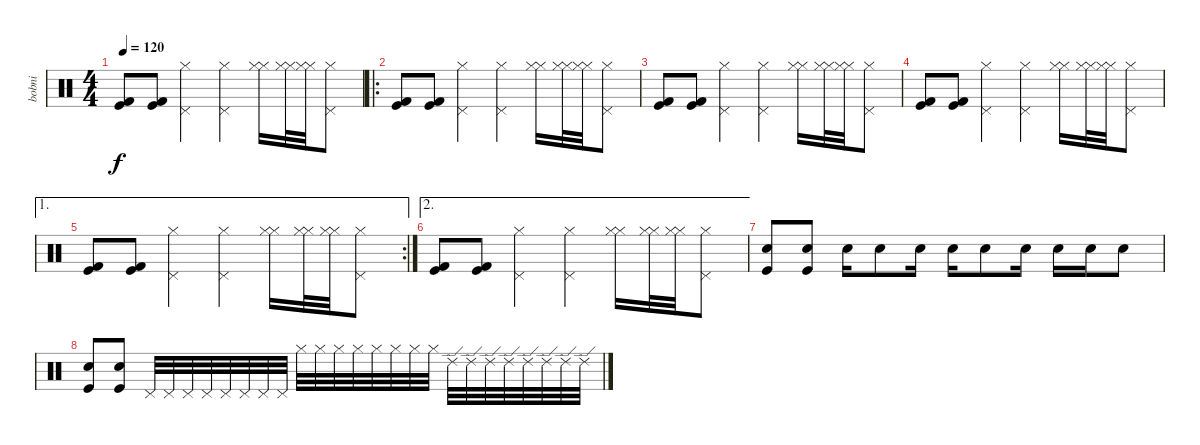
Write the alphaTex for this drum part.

\track ("bobni" "bobni") {instrument percussion}
\staff {score}
\articulation defaults
\ts (4 4)
\tempo 120
\clef neutral
\ks c
("Kick (hit) 2" "Kick (hit)").8{dy f} ("Kick (hit) 2" "Kick (hit)").8 ("Pedal Hi-Hat (hit)" "Hi-Hat (closed)").4 ("Pedal Hi-Hat (hit)" "Hi-Hat (closed)").4 ("Hi-Hat (closed)" "Hi-Hat (closed)").16 ("Hi-Hat (closed)" "Hi-Hat (closed)").32 ("Hi-Hat (closed)" "Hi-Hat (closed)").32 ("Pedal Hi-Hat (hit)" "Hi-Hat (closed)").8 |
\ro
("Kick (hit) 2" "Kick (hit)").8 ("Kick (hit) 2" "Kick (hit)").8 ("Pedal Hi-Hat (hit)" "Hi-Hat (closed)").4 ("Pedal Hi-Hat (hit)" "Hi-Hat (closed)").4 ("Hi-Hat (closed)" "Hi-Hat (closed)").16 ("Hi-Hat (closed)" "Hi-Hat (closed)").32 ("Hi-Hat (closed)" "Hi-Hat (closed)").32 ("Pedal Hi-Hat (hit)" "Hi-Hat (closed)").8 |
("Kick (hit) 2" "Kick (hit)").8 ("Kick (hit) 2" "Kick (hit)").8 ("Pedal Hi-Hat (hit)" "Hi-Hat (closed)").4 ("Pedal Hi-Hat (hit)" "Hi-Hat (closed)").4 ("Hi-Hat (closed)" "Hi-Hat (closed)").16 ("Hi-Hat (closed)" "Hi-Hat (closed)").32 ("Hi-Hat (closed)" "Hi-Hat (closed)").32 ("Pedal Hi-Hat (hit)" "Hi-Hat (closed)").8 |
("Kick (hit) 2" "Kick (hit)").8 ("Kick (hit) 2" "Kick (hit)").8 ("Pedal Hi-Hat (hit)" "Hi-Hat (closed)").4 ("Pedal Hi-Hat (hit)" "Hi-Hat (closed)").4 ("Hi-Hat (closed)" "Hi-Hat (closed)").16 ("Hi-Hat (closed)" "Hi-Hat (closed)").32 ("Hi-Hat (closed)" "Hi-Hat (closed)").32 ("Pedal Hi-Hat (hit)" "Hi-Hat (closed)").8 |
\ae 1
\rc 2
("Kick (hit) 2" "Kick (hit)").8 ("Kick (hit) 2" "Kick (hit)").8 ("Pedal Hi-Hat (hit)" "Hi-Hat (closed)").4 ("Pedal Hi-Hat (hit)" "Hi-Hat (closed)").4 ("Hi-Hat (closed)" "Hi-Hat (closed)").16 ("Hi-Hat (closed)" "Hi-Hat (closed)").32 ("Hi-Hat (closed)" "Hi-Hat (closed)").32 ("Pedal Hi-Hat (hit)" "Hi-Hat (closed)").8 |
\ae 2
("Kick (hit) 2" "Kick (hit)").8 ("Kick (hit) 2" "Kick (hit)").8 ("Pedal Hi-Hat (hit)" "Hi-Hat (closed)").4 ("Pedal Hi-Hat (hit)" "Hi-Hat (closed)").4 ("Hi-Hat (closed)" "Hi-Hat (closed)").16 ("Hi-Hat (closed)" "Hi-Hat (closed)").32 ("Hi-Hat (closed)" "Hi-Hat (closed)").32 ("Pedal Hi-Hat (hit)" "Hi-Hat (closed)").8 |
("Snare (hit) 2" "Kick (hit)").8 ("Snare (hit) 2" "Kick (hit)").8 "Electric Snare (hit)".16 "Snare (hit) 2".8 "Electric Snare (hit)".16 "Electric Snare (hit)".16 "Snare (hit) 2".8 "Electric Snare (hit)".16 "Electric Snare (hit)".16 "Electric Snare (hit)".16 "Snare (hit) 2".8 |
("Snare (hit) 2" "Kick (hit)").8 ("Snare (hit) 2" "Kick (hit)").8 "Pedal Hi-Hat (hit)".32 "Pedal Hi-Hat (hit)".32 "Pedal Hi-Hat (hit)".32 "Pedal Hi-Hat (hit)".32 "Pedal Hi-Hat (hit)".32 "Pedal Hi-Hat (hit)".32 "Pedal Hi-Hat (hit)".32 "Pedal Hi-Hat (hit)".32 "Hi-Hat (closed)".32 "Hi-Hat (closed)".32 "Hi-Hat (closed)".32 "Hi-Hat (closed)".32 "Hi-Hat (closed)".32 "Hi-Hat (closed)".32 "Hi-Hat (closed)".32 "Hi-Hat (closed)".32 "Ride (edge) 2".32 "Ride (edge) 2".32 "Ride (edge) 2".32 "Ride (edge) 2".32 "Ride (edge) 2".32 "Ride (edge) 2".32 "Ride (edge) 2".32 "Ride (edge) 2".32
